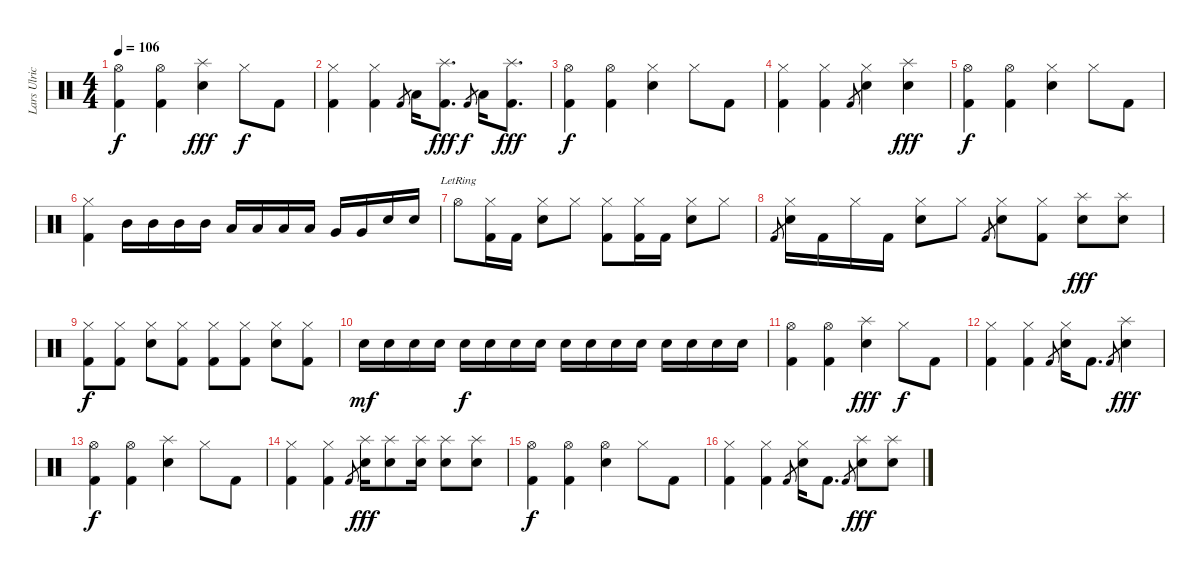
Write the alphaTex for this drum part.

\track ("Lars Ulrich [Drums]" "Lars Ulric") {instrument percussion}
\staff {score}
\articulation defaults
\ts (4 4)
\tempo 106
\clef neutral
\ks c
("Hi-Hat (open)" "Kick (hit) 2").4{dy f} ("Hi-Hat (open)" "Kick (hit) 2").4 ("Splash (hit)" "Electric Snare (hit)").4{dy fff} "Hi-Hat (closed)".8{dy f} "Kick (hit) 2".8 |
("Hi-Hat (closed)" "Kick (hit) 2").4 ("Hi-Hat (closed)" "Kick (hit) 2").4 "Kick (hit) 2".8{gr} "Low Tom (hit)".16 ("Splash (hit)" "Kick (hit) 2").8{d dy fff} "Kick (hit) 2".8{gr dy f} "Low Tom (hit)".16 ("Splash (hit)" "Kick (hit) 2").8{d dy fff} |
("Hi-Hat (open)" "Kick (hit) 2").4{dy f} ("Hi-Hat (open)" "Kick (hit) 2").4 ("Hi-Hat (closed)" "Electric Snare (hit)").4 "Hi-Hat (closed)".8 "Kick (hit) 2".8 |
("Hi-Hat (closed)" "Kick (hit) 2").4 ("Hi-Hat (closed)" "Kick (hit) 2").4 "Kick (hit) 2".8{gr} ("Hi-Hat (closed)" "Electric Snare (hit)").4 ("Splash (hit)" "Electric Snare (hit)").4{dy fff} |
("Hi-Hat (open)" "Kick (hit) 2").4{dy f} ("Hi-Hat (open)" "Kick (hit) 2").4 ("Hi-Hat (closed)" "Electric Snare (hit)").4 "Hi-Hat (closed)".8 "Kick (hit) 2".8 |
("Hi-Hat (closed)" "Kick (hit) 2").4 "Mid Tom (hit)".16 "Mid Tom (hit)".16 "Mid Tom (hit)".16 "Mid Tom (hit)".16 "Low Tom (hit)".16 "Low Tom (hit)".16 "Low Tom (hit)".16 "Low Tom (hit)".16 "Very Low Tom (hit)".16 "Very Low Tom (hit)".16 "Electric Snare (hit)".16 "Electric Snare (hit)".16 |
"Hi-Hat (open)"{lr}.8 ("Hi-Hat (closed)" "Kick (hit) 2").16 "Kick (hit) 2".16 ("Hi-Hat (closed)" "Electric Snare (hit)").8 "Hi-Hat (closed)".8 ("Hi-Hat (closed)" "Kick (hit) 2").8 ("Hi-Hat (closed)" "Kick (hit) 2").16 "Kick (hit) 2".16 ("Hi-Hat (closed)" "Electric Snare (hit)").8 "Hi-Hat (closed)".8 |
"Kick (hit) 2".8{gr} ("Hi-Hat (closed)" "Electric Snare (hit)").16 "Kick (hit) 2".16 "Hi-Hat (closed)".16 "Kick (hit) 2".16 ("Hi-Hat (closed)" "Electric Snare (hit)").8 "Hi-Hat (closed)".8 "Kick (hit) 2".8{gr} ("Hi-Hat (closed)" "Electric Snare (hit)").8 ("Hi-Hat (closed)" "Kick (hit) 2").8 ("Splash (hit)" "Electric Snare (hit)").8{dy fff} ("Splash (hit)" "Electric Snare (hit)").8 |
("Hi-Hat (closed)" "Kick (hit) 2").8{dy f} ("Hi-Hat (closed)" "Kick (hit) 2").8 ("Hi-Hat (closed)" "Electric Snare (hit)").8 ("Hi-Hat (closed)" "Kick (hit) 2").8 ("Hi-Hat (closed)" "Kick (hit) 2").8 ("Hi-Hat (closed)" "Kick (hit) 2").8 ("Hi-Hat (closed)" "Electric Snare (hit)").8 ("Hi-Hat (closed)" "Kick (hit) 2").8 |
"Electric Snare (hit)".16{dy mf} "Electric Snare (hit)".16 "Electric Snare (hit)".16 "Electric Snare (hit)".16 "Electric Snare (hit)".16{dy f} "Electric Snare (hit)".16 "Electric Snare (hit)".16 "Electric Snare (hit)".16 "Electric Snare (hit)".16 "Electric Snare (hit)".16 "Electric Snare (hit)".16 "Electric Snare (hit)".16 "Electric Snare (hit)".16 "Electric Snare (hit)".16 "Electric Snare (hit)".16 "Electric Snare (hit)".16 |
("Hi-Hat (open)" "Kick (hit) 2").4 ("Hi-Hat (open)" "Kick (hit) 2").4 ("Splash (hit)" "Electric Snare (hit)").4{dy fff} "Hi-Hat (closed)".8{dy f} "Kick (hit) 2".8 |
("Hi-Hat (closed)" "Kick (hit) 2").4 ("Hi-Hat (closed)" "Kick (hit) 2").4 "Kick (hit) 2".8{gr} ("Hi-Hat (closed)" "Electric Snare (hit)").16 "Kick (hit) 2".8{d} "Kick (hit) 2".8{gr} ("Splash (hit)" "Electric Snare (hit)").4{dy fff} |
("Hi-Hat (open)" "Kick (hit) 2").4{dy f} ("Hi-Hat (open)" "Kick (hit) 2").4 ("Splash (hit)" "Electric Snare (hit)").4 "Hi-Hat (closed)".8 "Kick (hit) 2".8 |
("Hi-Hat (closed)" "Kick (hit) 2").4 ("Hi-Hat (closed)" "Kick (hit) 2").4 "Kick (hit) 2".8{gr} ("Splash (hit)" "Electric Snare (hit)").16{dy fff} ("Splash (hit)" "Electric Snare (hit)").8 ("Splash (hit)" "Electric Snare (hit)").16 ("Splash (hit)" "Electric Snare (hit)").8 ("Splash (hit)" "Electric Snare (hit)").8 |
("Hi-Hat (open)" "Kick (hit) 2").4{dy f} ("Hi-Hat (open)" "Kick (hit) 2").4 ("Hi-Hat (open)" "Electric Snare (hit)").4 "Hi-Hat (closed)".8 "Kick (hit) 2".8 |
("Hi-Hat (closed)" "Kick (hit) 2").4 ("Hi-Hat (closed)" "Kick (hit) 2").4 "Kick (hit) 2".8{gr} ("Hi-Hat (closed)" "Electric Snare (hit)").16 "Kick (hit) 2".8{d} "Kick (hit) 2".8{gr} ("Splash (hit)" "Electric Snare (hit)").8{dy fff} ("Splash (hit)" "Electric Snare (hit)").8
